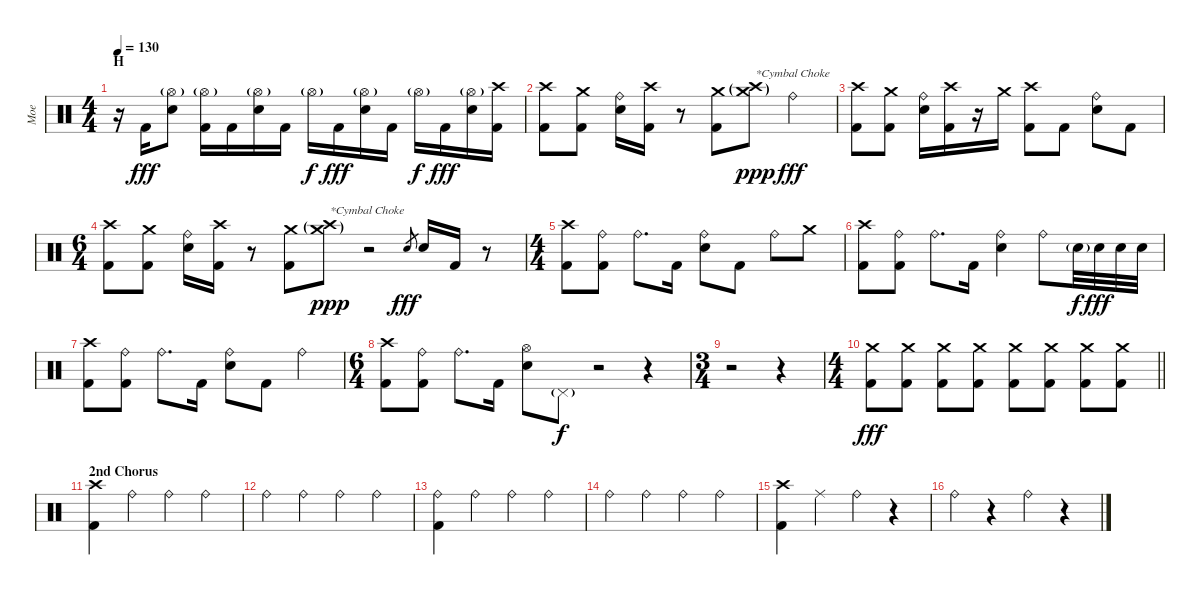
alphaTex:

\track ("Moe" "Moe") {instrument percussion}
\staff {score}
\articulation defaults
\ts (4 4)
\section ("" "H")
\tempo 130
\clef neutral
\ks c
r.16{dy fff} "Kick (hit) 2".16 ("Hi-Hat (open)"{g} "Electric Snare (hit)").8 ("Hi-Hat (open)"{g} "Kick (hit) 2").16 "Kick (hit) 2".16 ("Hi-Hat (open)"{g} "Electric Snare (hit)").16 "Kick (hit) 2".16 "Hi-Hat (open)"{g}.16{dy f} "Kick (hit) 2".16{dy fff} ("Hi-Hat (open)"{g} "Electric Snare (hit)").16 "Kick (hit) 2".16 "Hi-Hat (open)"{g}.16{dy f} "Kick (hit) 2".16{dy fff} ("Hi-Hat (open)"{g} "Electric Snare (hit)").16 ("Crash high (hit)" "Kick (hit) 2").16 |
("Crash high (hit)" "Kick (hit) 2").8 ("Crash medium (hit)" "Kick (hit) 2").8 ("Ride (bell)" "Electric Snare (hit)").16 ("Crash high (hit)" "Kick (hit) 2").16 r.8 ("Crash medium (hit)" "Kick (hit) 2").8 ("Crash medium (hit)"{g} "Crash high (hit)"{g}).8{txt "*Cymbal Choke" dy ppp} "Ride (bell)".4{dy fff} |
("Crash high (hit)" "Kick (hit) 2").8 ("Crash medium (hit)" "Kick (hit) 2").8 ("Ride (bell)" "Electric Snare (hit)").16 ("Crash high (hit)" "Kick (hit) 2").16 r.16 "Crash medium (hit)".16 ("Crash high (hit)" "Kick (hit) 2").8 "Kick (hit) 2".8 ("Ride (bell)" "Electric Snare (hit)").8 "Kick (hit) 2".8 |
\ts (6 4)
("Crash high (hit)" "Kick (hit) 2").8 ("Crash medium (hit)" "Kick (hit) 2").8 ("Ride (bell)" "Electric Snare (hit)").16 ("Crash high (hit)" "Kick (hit) 2").16 r.8 ("Crash medium (hit)" "Kick (hit) 2").8 ("Crash medium (hit)"{g} "Crash high (hit)"{g}).8{txt "*Cymbal Choke" dy ppp} r.2 "Electric Snare (hit)".8{gr dy fff} "Electric Snare (hit)".16 "Kick (hit) 2".16 r.8 |
\ts (4 4)
("Crash high (hit)" "Kick (hit) 2").8 ("Ride (bell)" "Kick (hit) 2").8 "Ride (bell)".8{d} "Kick (hit) 2".16 ("Ride (bell)" "Electric Snare (hit)").8 "Kick (hit) 2".8 "Ride (bell)".8 "Crash medium (hit)".8 |
("Crash high (hit)" "Kick (hit) 2").8 ("Ride (bell)" "Kick (hit) 2").8 "Ride (bell)".8{d} "Kick (hit) 2".16 ("Ride (bell)" "Electric Snare (hit)").4 "Ride (bell)".8 "Electric Snare (hit)"{g}.32{dy f} "Electric Snare (hit)".32{dy fff} "Electric Snare (hit)".32 "Electric Snare (hit)".32 |
("Crash high (hit)" "Kick (hit) 2").8 ("Ride (bell)" "Kick (hit) 2").8 "Ride (bell)".8{d} "Kick (hit) 2".16 ("Ride (bell)" "Electric Snare (hit)").8 "Kick (hit) 2".8 "Ride (bell)".4 |
\ts (6 4)
("Crash high (hit)" "Kick (hit) 2").8 ("Ride (bell)" "Kick (hit) 2").8 "Ride (bell)".8{d} "Kick (hit) 2".16 ("Hi-Hat (open)" "Electric Snare (hit)").8 "Pedal Hi-Hat (hit)"{g}.8{dy f} r.2 r.4 |
\ts (3 4)
r.2 r.4 |
\ts (4 4)
\barLineRight lightlight
("Crash medium (hit)" "Kick (hit) 2").8{dy fff} ("Crash medium (hit)" "Kick (hit) 2").8 ("Crash medium (hit)" "Kick (hit) 2").8 ("Crash medium (hit)" "Kick (hit) 2").8 ("Crash medium (hit)" "Kick (hit) 2").8 ("Crash medium (hit)" "Kick (hit) 2").8 ("Crash medium (hit)" "Kick (hit) 2").8 ("Crash medium (hit)" "Kick (hit) 2").8 |
\section ("" "2nd Chorus")
("Crash high (hit)" "Kick (hit) 2").4 "Ride (bell)".4 "Ride (bell)".4 "Ride (bell)".4 |
"Ride (bell)".4 "Ride (bell)".4 "Ride (bell)".4 "Ride (bell)".4 |
("Ride (bell)" "Kick (hit) 2").4 "Ride (bell)".4 "Ride (bell)".4 "Ride (bell)".4 |
"Ride (bell)".4 "Ride (bell)".4 "Ride (bell)".4 "Ride (bell)".4 |
("Crash high (hit)" "Kick (hit) 2").4 "Ride (middle)".4 "Ride (bell)".4 r.4 |
"Ride (bell)".4 r.4 "Ride (bell)".4 r.4
